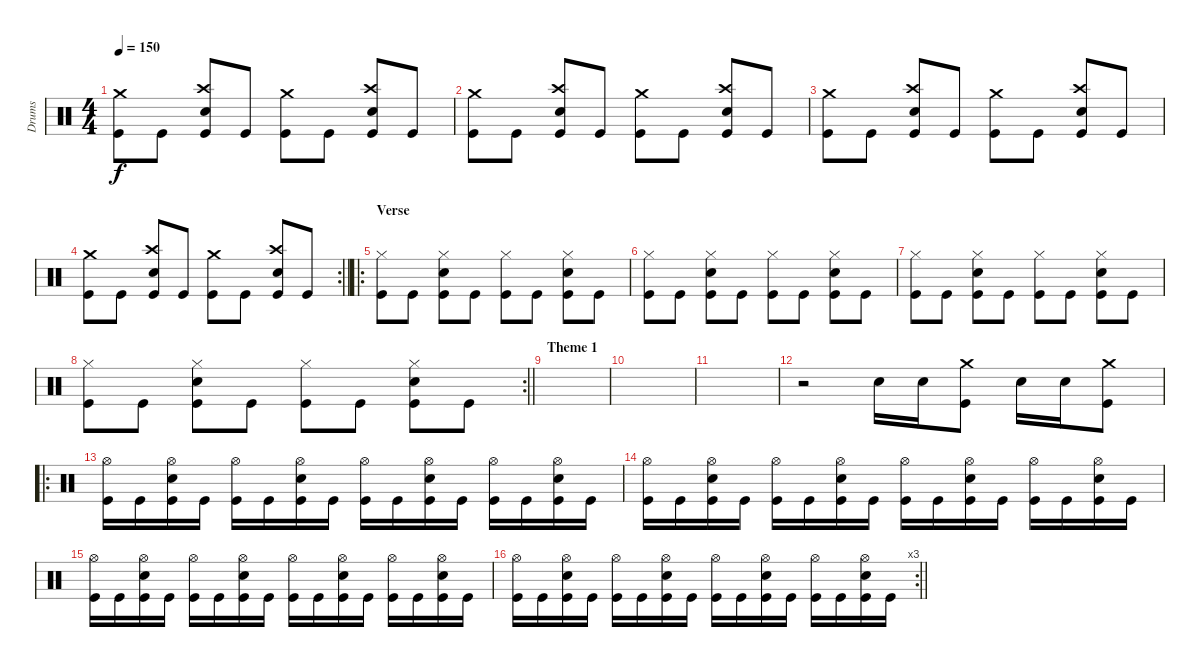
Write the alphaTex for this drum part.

\track ("Drums" "Drums") {instrument percussion}
\staff {score}
\articulation defaults
\ts (4 4)
\tempo 150
\clef neutral
\ks c
("Crash medium (hit)" "Kick (hit)").8{dy f} "Kick (hit)".8 ("Crash high (hit)" "Snare (hit) 2" "Kick (hit)").8 "Kick (hit)".8 ("Crash medium (hit)" "Kick (hit)").8 "Kick (hit)".8 ("Crash high (hit)" "Snare (hit) 2" "Kick (hit)").8 "Kick (hit)".8 |
("Crash medium (hit)" "Kick (hit)").8 "Kick (hit)".8 ("Crash high (hit)" "Snare (hit) 2" "Kick (hit)").8 "Kick (hit)".8 ("Crash medium (hit)" "Kick (hit)").8 "Kick (hit)".8 ("Crash high (hit)" "Snare (hit) 2" "Kick (hit)").8 "Kick (hit)".8 |
("Crash medium (hit)" "Kick (hit)").8 "Kick (hit)".8 ("Crash high (hit)" "Snare (hit) 2" "Kick (hit)").8 "Kick (hit)".8 ("Crash medium (hit)" "Kick (hit)").8 "Kick (hit)".8 ("Crash high (hit)" "Snare (hit) 2" "Kick (hit)").8 "Kick (hit)".8 |
\rc 2
\barLineRight lightlight
("Crash medium (hit)" "Kick (hit)").8 "Kick (hit)".8 ("Crash high (hit)" "Snare (hit) 2" "Kick (hit)").8 "Kick (hit)".8 ("Crash medium (hit)" "Kick (hit)").8 "Kick (hit)".8 ("Crash high (hit)" "Snare (hit) 2" "Kick (hit)").8 "Kick (hit)".8 |
\ro
\section ("" "Verse")
("Hi-Hat (closed)" "Kick (hit)").8 "Kick (hit)".8 ("Hi-Hat (closed)" "Snare (hit) 2" "Kick (hit)").8 "Kick (hit)".8 ("Hi-Hat (closed)" "Kick (hit)").8 "Kick (hit)".8 ("Hi-Hat (closed)" "Snare (hit) 2" "Kick (hit)").8 "Kick (hit)".8 |
("Hi-Hat (closed)" "Kick (hit)").8 "Kick (hit)".8 ("Hi-Hat (closed)" "Snare (hit) 2" "Kick (hit)").8 "Kick (hit)".8 ("Hi-Hat (closed)" "Kick (hit)").8 "Kick (hit)".8 ("Hi-Hat (closed)" "Snare (hit) 2" "Kick (hit)").8 "Kick (hit)".8 |
("Hi-Hat (closed)" "Kick (hit)").8 "Kick (hit)".8 ("Hi-Hat (closed)" "Snare (hit) 2" "Kick (hit)").8 "Kick (hit)".8 ("Hi-Hat (closed)" "Kick (hit)").8 "Kick (hit)".8 ("Hi-Hat (closed)" "Snare (hit) 2" "Kick (hit)").8 "Kick (hit)".8 |
\rc 2
\barLineRight lightlight
("Hi-Hat (closed)" "Kick (hit)").8 "Kick (hit)".8 ("Hi-Hat (closed)" "Snare (hit) 2" "Kick (hit)").8 "Kick (hit)".8 ("Hi-Hat (closed)" "Kick (hit)").8 "Kick (hit)".8 ("Hi-Hat (closed)" "Snare (hit) 2" "Kick (hit)").8 "Kick (hit)".8 |
\section ("" "Theme 1")
|
|
|
r.2 "Snare (hit) 2".16 "Snare (hit) 2".16 ("Crash medium (hit)" "Kick (hit)").8 "Snare (hit) 2".16 "Snare (hit) 2".16 ("Crash medium (hit)" "Kick (hit)").8 |
\ro
("Hi-Hat (open)" "Kick (hit)").16 "Kick (hit)".16 ("Hi-Hat (open)" "Snare (hit) 2" "Kick (hit)").16 "Kick (hit)".16 ("Hi-Hat (open)" "Kick (hit)").16 "Kick (hit)".16 ("Hi-Hat (open)" "Snare (hit) 2" "Kick (hit)").16 "Kick (hit)".16 ("Hi-Hat (open)" "Kick (hit)").16 "Kick (hit)".16 ("Hi-Hat (open)" "Snare (hit) 2" "Kick (hit)").16 "Kick (hit)".16 ("Hi-Hat (open)" "Kick (hit)").16 "Kick (hit)".16 ("Hi-Hat (open)" "Snare (hit) 2" "Kick (hit)").16 "Kick (hit)".16 |
("Hi-Hat (open)" "Kick (hit)").16 "Kick (hit)".16 ("Hi-Hat (open)" "Snare (hit) 2" "Kick (hit)").16 "Kick (hit)".16 ("Hi-Hat (open)" "Kick (hit)").16 "Kick (hit)".16 ("Hi-Hat (open)" "Snare (hit) 2" "Kick (hit)").16 "Kick (hit)".16 ("Hi-Hat (open)" "Kick (hit)").16 "Kick (hit)".16 ("Hi-Hat (open)" "Snare (hit) 2" "Kick (hit)").16 "Kick (hit)".16 ("Hi-Hat (open)" "Kick (hit)").16 "Kick (hit)".16 ("Hi-Hat (open)" "Snare (hit) 2" "Kick (hit)").16 "Kick (hit)".16 |
("Hi-Hat (open)" "Kick (hit)").16 "Kick (hit)".16 ("Hi-Hat (open)" "Snare (hit) 2" "Kick (hit)").16 "Kick (hit)".16 ("Hi-Hat (open)" "Kick (hit)").16 "Kick (hit)".16 ("Hi-Hat (open)" "Snare (hit) 2" "Kick (hit)").16 "Kick (hit)".16 ("Hi-Hat (open)" "Kick (hit)").16 "Kick (hit)".16 ("Hi-Hat (open)" "Snare (hit) 2" "Kick (hit)").16 "Kick (hit)".16 ("Hi-Hat (open)" "Kick (hit)").16 "Kick (hit)".16 ("Hi-Hat (open)" "Snare (hit) 2" "Kick (hit)").16 "Kick (hit)".16 |
\rc 3
\barLineRight lightlight
("Hi-Hat (open)" "Kick (hit)").16 "Kick (hit)".16 ("Hi-Hat (open)" "Snare (hit) 2" "Kick (hit)").16 "Kick (hit)".16 ("Hi-Hat (open)" "Kick (hit)").16 "Kick (hit)".16 ("Hi-Hat (open)" "Snare (hit) 2" "Kick (hit)").16 "Kick (hit)".16 ("Hi-Hat (open)" "Kick (hit)").16 "Kick (hit)".16 ("Hi-Hat (open)" "Snare (hit) 2" "Kick (hit)").16 "Kick (hit)".16 ("Hi-Hat (open)" "Kick (hit)").16 "Kick (hit)".16 ("Hi-Hat (open)" "Snare (hit) 2" "Kick (hit)").16 "Kick (hit)".16
